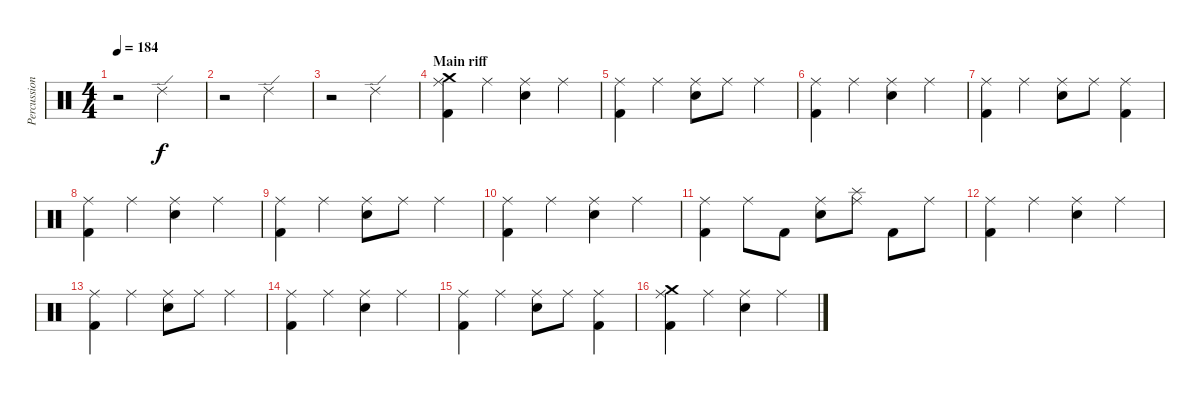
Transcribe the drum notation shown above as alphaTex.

\track ("Percussion" "Percussion") {instrument percussion}
\staff {score}
\articulation defaults
\ts (4 4)
\tempo 184
\clef neutral
\ks c
r.2{dy f} "Ride (edge) 2".2 |
r.2 "Ride (edge) 2".2 |
r.2 "Ride (edge) 2".2 |
\section ("" "Main riff")
("Kick (hit) 2" "Crash medium (hit)" "Ride (middle)").4 "Ride (middle)".4 ("Snare (hit) 2" "Ride (middle)").4 "Ride (middle)".4 |
("Kick (hit) 2" "Ride (middle)").4 "Ride (middle)".4 ("Snare (hit) 2" "Ride (middle)").8 "Ride (middle)".8 "Ride (middle)".4 |
("Kick (hit) 2" "Ride (middle)").4 "Ride (middle)".4 ("Snare (hit) 2" "Ride (middle)").4 "Ride (middle)".4 |
("Kick (hit) 2" "Ride (middle)").4 "Ride (middle)".4 ("Snare (hit) 2" "Ride (middle)").8 "Ride (middle)".8 ("Kick (hit) 2" "Ride (middle)").4 |
("Kick (hit) 2" "Ride (middle)").4 "Ride (middle)".4 ("Snare (hit) 2" "Ride (middle)").4 "Ride (middle)".4 |
("Kick (hit) 2" "Ride (middle)").4 "Ride (middle)".4 ("Snare (hit) 2" "Ride (middle)").8 "Ride (middle)".8 "Ride (middle)".4 |
("Kick (hit) 2" "Ride (middle)").4 "Ride (middle)".4 ("Snare (hit) 2" "Ride (middle)").4 "Ride (middle)".4 |
("Kick (hit) 2" "Ride (middle)").4 "Ride (middle)".8 "Kick (hit) 2".8 ("Snare (hit) 2" "Ride (middle)").8 ("Splash (hit)" "Ride (middle)").8 "Kick (hit) 2".8 "Ride (middle)".8 |
("Kick (hit) 2" "Ride (middle)").4 "Ride (middle)".4 ("Snare (hit) 2" "Ride (middle)").4 "Ride (middle)".4 |
("Kick (hit) 2" "Ride (middle)").4 "Ride (middle)".4 ("Snare (hit) 2" "Ride (middle)").8 "Ride (middle)".8 "Ride (middle)".4 |
("Kick (hit) 2" "Ride (middle)").4 "Ride (middle)".4 ("Snare (hit) 2" "Ride (middle)").4 "Ride (middle)".4 |
("Kick (hit) 2" "Ride (middle)").4 "Ride (middle)".4 ("Snare (hit) 2" "Ride (middle)").8 "Ride (middle)".8 ("Kick (hit) 2" "Ride (middle)").4 |
("Kick (hit) 2" "Crash medium (hit)" "Ride (middle)").4 "Ride (middle)".4 ("Snare (hit) 2" "Ride (middle)").4 "Ride (middle)".4
